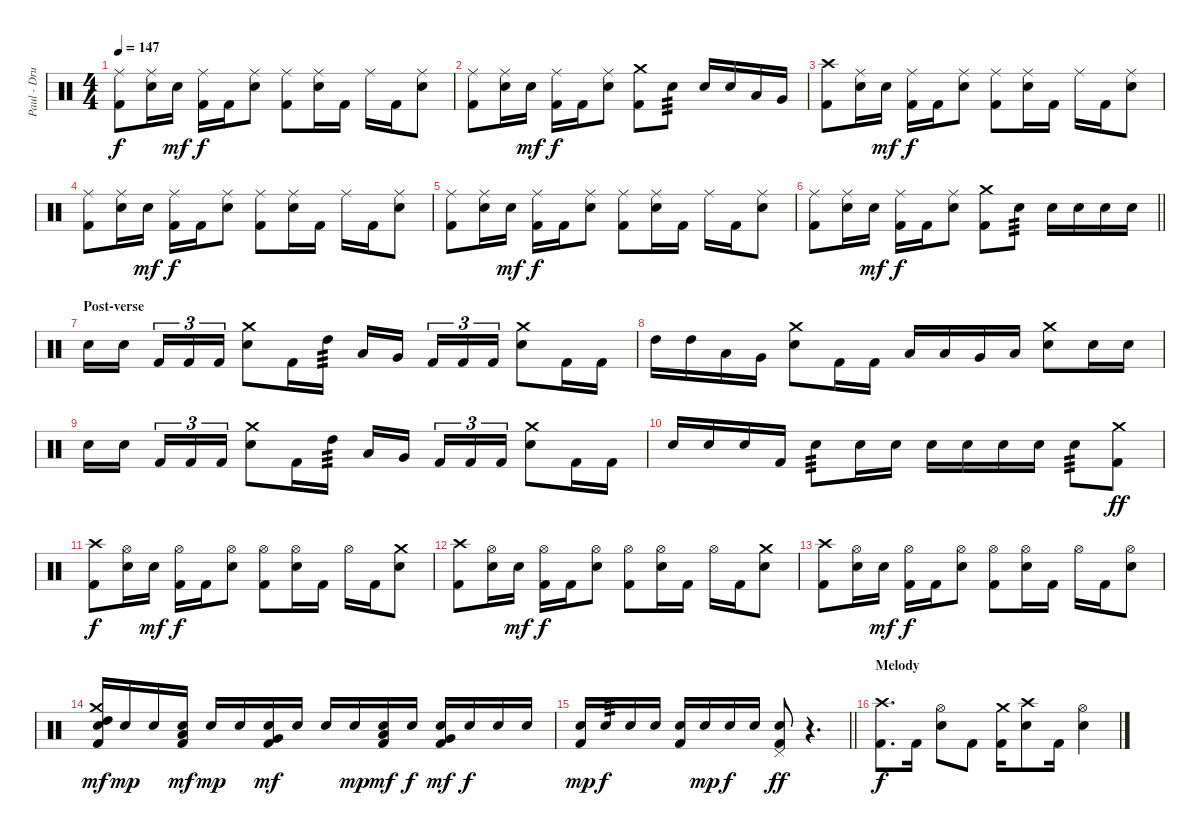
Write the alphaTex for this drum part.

\track ("Paul - Drums" "Paul - Dru") {instrument percussion}
\staff {score}
\articulation defaults
\ts (4 4)
\tempo 147
\clef neutral
\ks c
("Ride (middle)" "Kick (hit) 2").8{dy f} ("Ride (middle)" "Electric Snare (hit)").16 "Electric Snare (hit)".16{dy mf} ("Ride (middle)" "Kick (hit) 2").16{dy f} "Kick (hit) 2".16 ("Ride (middle)" "Electric Snare (hit)").8 ("Ride (middle)" "Kick (hit) 2").8 ("Ride (middle)" "Electric Snare (hit)").16 "Kick (hit) 2".16 "Ride (middle)".16 "Kick (hit) 2".16 ("Ride (middle)" "Electric Snare (hit)").8 |
("Ride (middle)" "Kick (hit) 2").8 ("Ride (middle)" "Electric Snare (hit)").16 "Electric Snare (hit)".16{dy mf} ("Ride (middle)" "Kick (hit) 2").16{dy f} "Kick (hit) 2".16 ("Ride (middle)" "Electric Snare (hit)").8 ("Crash medium (hit)" "Kick (hit) 2").8 "Electric Snare (hit)".8{tp 3} "Electric Snare (hit)".16 "Electric Snare (hit)".16 "Low Tom (hit)".16 "Very Low Tom (hit)".16 |
("Crash high (hit)" "Kick (hit) 2").8 ("Ride (middle)" "Electric Snare (hit)").16 "Electric Snare (hit)".16{dy mf} ("Ride (middle)" "Kick (hit) 2").16{dy f} "Kick (hit) 2".16 ("Ride (middle)" "Electric Snare (hit)").8 ("Ride (middle)" "Kick (hit) 2").8 ("Ride (middle)" "Electric Snare (hit)").16 "Kick (hit) 2".16 "Ride (middle)".16 "Kick (hit) 2".16 ("Ride (middle)" "Electric Snare (hit)").8 |
("Ride (middle)" "Kick (hit) 2").8 ("Ride (middle)" "Electric Snare (hit)").16 "Electric Snare (hit)".16{dy mf} ("Ride (middle)" "Kick (hit) 2").16{dy f} "Kick (hit) 2".16 ("Ride (middle)" "Electric Snare (hit)").8 ("Ride (middle)" "Kick (hit) 2").8 ("Ride (middle)" "Electric Snare (hit)").16 "Kick (hit) 2".16 "Ride (middle)".16 "Kick (hit) 2".16 ("Ride (middle)" "Electric Snare (hit)").8 |
("Ride (middle)" "Kick (hit) 2").8 ("Ride (middle)" "Electric Snare (hit)").16 "Electric Snare (hit)".16{dy mf} ("Ride (middle)" "Kick (hit) 2").16{dy f} "Kick (hit) 2".16 ("Ride (middle)" "Electric Snare (hit)").8 ("Ride (middle)" "Kick (hit) 2").8 ("Ride (middle)" "Electric Snare (hit)").16 "Kick (hit) 2".16 "Ride (middle)".16 "Kick (hit) 2".16 ("Ride (middle)" "Electric Snare (hit)").8 |
\barLineRight lightlight
("Ride (middle)" "Kick (hit) 2").8 ("Ride (middle)" "Electric Snare (hit)").16 "Electric Snare (hit)".16{dy mf} ("Ride (middle)" "Kick (hit) 2").16{dy f} "Kick (hit) 2".16 ("Ride (middle)" "Electric Snare (hit)").8 ("Crash medium (hit)" "Kick (hit) 2").8 "Electric Snare (hit)".8{tp 3} "Electric Snare (hit)".16 "Electric Snare (hit)".16 "Electric Snare (hit)".16 "Electric Snare (hit)".16 |
\section ("" "Post-verse")
"Electric Snare (hit)".16 "Electric Snare (hit)".16{beam splitsecondary} "Kick (hit) 2".16{tu (3 2)} "Kick (hit) 2".16{tu (3 2)} "Kick (hit) 2".16{tu (3 2)} ("Crash medium (hit)" "Electric Snare (hit)").8 "Kick (hit) 2".16 "High Tom (hit)".16{tp 3} "Low Tom (hit)".16 "Very Low Tom (hit)".16{beam splitsecondary} "Kick (hit) 2".16{tu (3 2)} "Kick (hit) 2".16{tu (3 2)} "Kick (hit) 2".16{tu (3 2)} ("Crash medium (hit)" "Electric Snare (hit)").8 "Kick (hit) 2".16 "Kick (hit) 2".16 |
"High Tom (hit)".16 "High Tom (hit)".16 "Low Tom (hit)".16 "Very Low Tom (hit)".16 ("Crash medium (hit)" "Electric Snare (hit)").8 "Kick (hit) 2".16 "Kick (hit) 2".16 "Low Tom (hit)".16 "Low Tom (hit)".16 "Very Low Tom (hit)".16 "Low Floor Tom (hit)".16 ("Crash medium (hit)" "Electric Snare (hit)").8 "Electric Snare (hit)".16 "Electric Snare (hit)".16 |
"Electric Snare (hit)".16 "Electric Snare (hit)".16{beam splitsecondary} "Kick (hit) 2".16{tu (3 2)} "Kick (hit) 2".16{tu (3 2)} "Kick (hit) 2".16{tu (3 2)} ("Crash medium (hit)" "Electric Snare (hit)").8 "Kick (hit) 2".16 "High Tom (hit)".16{tp 3} "Low Tom (hit)".16 "Very Low Tom (hit)".16{beam splitsecondary} "Kick (hit) 2".16{tu (3 2)} "Kick (hit) 2".16{tu (3 2)} "Kick (hit) 2".16{tu (3 2)} ("Crash medium (hit)" "Electric Snare (hit)").8 "Kick (hit) 2".16 "Kick (hit) 2".16 |
"Electric Snare (hit)".16 "Electric Snare (hit)".16 "Electric Snare (hit)".16 "Kick (hit) 2".16 "Electric Snare (hit)".8{tp 3} "Electric Snare (hit)".16 "Electric Snare (hit)".16 "Electric Snare (hit)".16 "Electric Snare (hit)".16 "Electric Snare (hit)".16 "Electric Snare (hit)".16 "Electric Snare (hit)".8{tp 3} ("Crash medium (hit)" "Kick (hit) 2").8{dy ff} |
("Crash high (hit)" "Kick (hit) 2").8{dy f} ("Hi-Hat (open)" "Electric Snare (hit)").16 "Electric Snare (hit)".16{dy mf} ("Hi-Hat (open)" "Kick (hit) 2").16{dy f} "Kick (hit) 2".16 ("Hi-Hat (open)" "Electric Snare (hit)").8 ("Hi-Hat (open)" "Kick (hit) 2").8 ("Hi-Hat (open)" "Electric Snare (hit)").16 "Kick (hit) 2".16 "Hi-Hat (open)".16 "Kick (hit) 2".16 ("Crash medium (hit)" "Electric Snare (hit)").8 |
("Crash high (hit)" "Kick (hit) 2").8 ("Hi-Hat (open)" "Electric Snare (hit)").16 "Electric Snare (hit)".16{dy mf} ("Hi-Hat (open)" "Kick (hit) 2").16{dy f} "Kick (hit) 2".16 ("Hi-Hat (open)" "Electric Snare (hit)").8 ("Hi-Hat (open)" "Kick (hit) 2").8 ("Hi-Hat (open)" "Electric Snare (hit)").16 "Kick (hit) 2".16 "Hi-Hat (open)".16 "Kick (hit) 2".16 ("Crash medium (hit)" "Electric Snare (hit)").8 |
("Crash high (hit)" "Kick (hit) 2").8 ("Hi-Hat (open)" "Electric Snare (hit)").16 "Electric Snare (hit)".16{dy mf} ("Hi-Hat (open)" "Kick (hit) 2").16{dy f} "Kick (hit) 2".16 ("Hi-Hat (open)" "Electric Snare (hit)").8 ("Hi-Hat (open)" "Kick (hit) 2").8 ("Hi-Hat (open)" "Electric Snare (hit)").16 "Kick (hit) 2".16 "Hi-Hat (open)".16 "Kick (hit) 2".16 ("Hi-Hat (open)" "Electric Snare (hit)").8 |
("Crash medium (hit)" "High Tom (hit)" "Electric Snare (hit)" "Kick (hit) 2").16{dy mf} "Electric Snare (hit)".16{dy mp} "Electric Snare (hit)".16 ("Low Tom (hit)" "Electric Snare (hit)" "Kick (hit) 2").16{dy mf} "Electric Snare (hit)".16{dy mp} "Electric Snare (hit)".16 ("Very Low Tom (hit)" "Electric Snare (hit)" "Kick (hit) 2").16{dy mf} "Electric Snare (hit)".16 "Electric Snare (hit)".16 "Electric Snare (hit)".16{dy mp} ("Low Tom (hit)" "Electric Snare (hit)" "Kick (hit) 2").16{dy mf} "Electric Snare (hit)".16{dy f} ("Very Low Tom (hit)" "Electric Snare (hit)" "Kick (hit) 2").16{dy mf} "Electric Snare (hit)".16{dy f} "Electric Snare (hit)".16 "Electric Snare (hit)".16 |
\barLineRight lightlight
("Electric Snare (hit)" "Kick (hit) 2").16{dy mp} "Electric Snare (hit)".16{tp 3 dy f} "Electric Snare (hit)".16 "Electric Snare (hit)".16 ("Electric Snare (hit)" "Kick (hit) 2").16 "Electric Snare (hit)".16{dy mp} "Electric Snare (hit)".16{dy f} "Electric Snare (hit)".16 ("Pedal Hi-Hat (hit)" "Electric Snare (hit)" "Kick (hit) 2").8{dy ff} r.4{d} |
\section ("" "Melody")
("Crash high (hit)" "Kick (hit) 2").8{d dy f} "Kick (hit) 2".16 ("Hi-Hat (open)" "Electric Snare (hit)").8 "Kick (hit) 2".8 ("Crash medium (hit)" "Kick (hit) 2").16 ("Crash high (hit)" "Electric Snare (hit)").8 "Kick (hit) 2".16 ("Hi-Hat (open)" "Electric Snare (hit)").4
